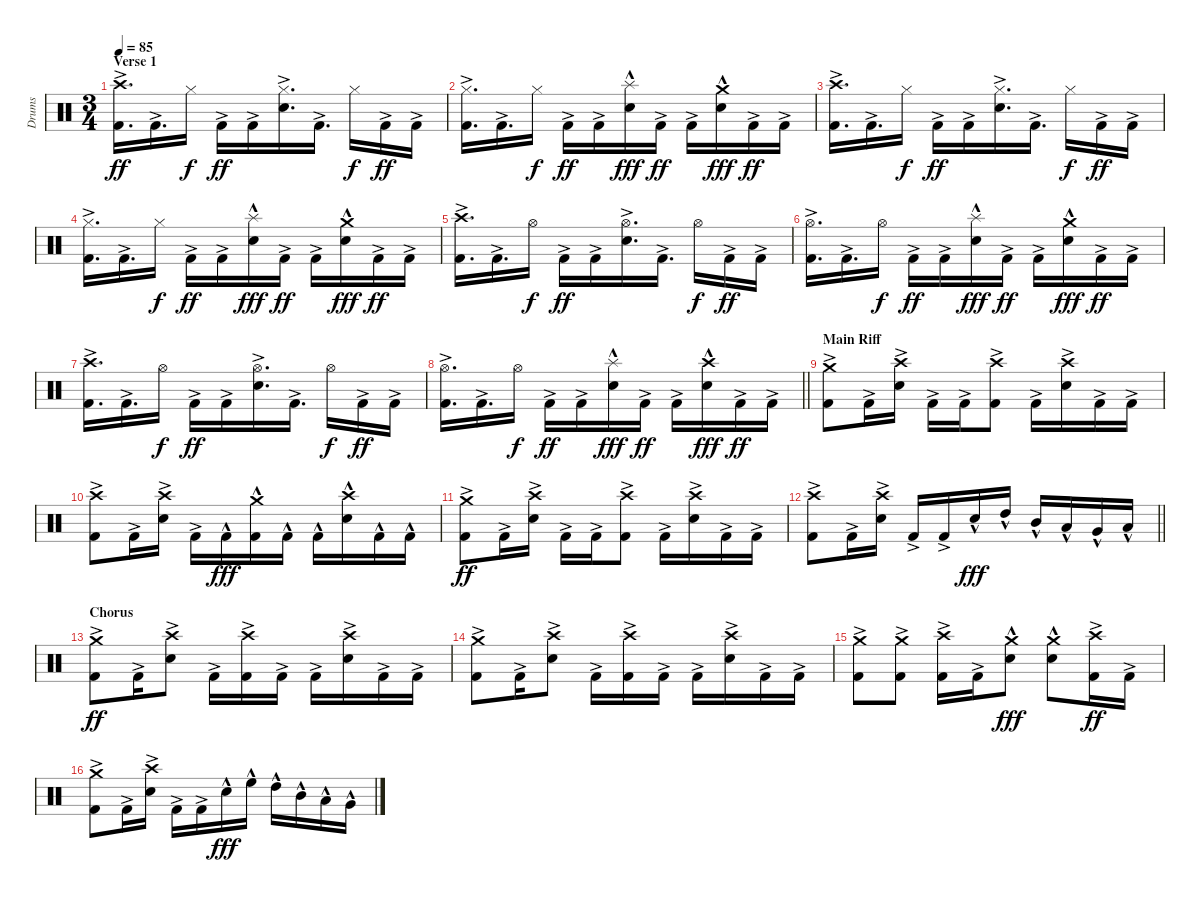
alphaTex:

\track ("Drums" "Drums") {instrument percussion}
\staff {score}
\articulation defaults
\ts (3 4)
\section ("" "Verse 1")
\tempo 85
\clef neutral
\ks c
("Crash high (hit)" "Kick (hit) 2"{ac}).16{d dy ff} "Kick (hit) 2"{ac}.16{d} "Hi-Hat (closed)".16{dy f} "Kick (hit) 2"{ac}.16{dy ff} "Kick (hit) 2"{ac}.16 ("Hi-Hat (closed)" "Electric Snare (hit)"{ac}).16{d} "Kick (hit) 2"{ac}.16{d} "Hi-Hat (closed)".16{dy f} "Kick (hit) 2"{ac}.16{dy ff} "Kick (hit) 2"{ac}.16 |
("Hi-Hat (closed)" "Kick (hit) 2"{ac}).16{d} "Kick (hit) 2"{ac}.16{d} "Hi-Hat (closed)".16{dy f} "Kick (hit) 2"{ac}.16{dy ff} "Kick (hit) 2"{ac}.16 ("Splash (hit)" "Electric Snare (hit)"{hac}).16{dy fff} "Kick (hit) 2"{ac}.16{dy ff} "Kick (hit) 2"{ac}.16 ("Crash medium (hit)" "Electric Snare (hit)"{hac}).16{dy fff} "Kick (hit) 2"{ac}.16{dy ff} "Kick (hit) 2"{ac}.16 |
("Crash high (hit)" "Kick (hit) 2"{ac}).16{d} "Kick (hit) 2"{ac}.16{d} "Hi-Hat (closed)".16{dy f} "Kick (hit) 2"{ac}.16{dy ff} "Kick (hit) 2"{ac}.16 ("Hi-Hat (closed)" "Electric Snare (hit)"{ac}).16{d} "Kick (hit) 2"{ac}.16{d} "Hi-Hat (closed)".16{dy f} "Kick (hit) 2"{ac}.16{dy ff} "Kick (hit) 2"{ac}.16 |
("Hi-Hat (closed)" "Kick (hit) 2"{ac}).16{d} "Kick (hit) 2"{ac}.16{d} "Hi-Hat (closed)".16{dy f} "Kick (hit) 2"{ac}.16{dy ff} "Kick (hit) 2"{ac}.16 ("Splash (hit)" "Electric Snare (hit)"{hac}).16{dy fff} "Kick (hit) 2"{ac}.16{dy ff} "Kick (hit) 2"{ac}.16 ("Crash medium (hit)" "Electric Snare (hit)"{hac}).16{dy fff} "Kick (hit) 2"{ac}.16{dy ff} "Kick (hit) 2"{ac}.16 |
("Crash high (hit)" "Kick (hit) 2"{ac}).16{d} "Kick (hit) 2"{ac}.16{d} "Hi-Hat (open)".16{dy f} "Kick (hit) 2"{ac}.16{dy ff} "Kick (hit) 2"{ac}.16 ("Hi-Hat (open)" "Electric Snare (hit)"{ac}).16{d} "Kick (hit) 2"{ac}.16{d} "Hi-Hat (open)".16{dy f} "Kick (hit) 2"{ac}.16{dy ff} "Kick (hit) 2"{ac}.16 |
("Hi-Hat (open)" "Kick (hit) 2"{ac}).16{d} "Kick (hit) 2"{ac}.16{d} "Hi-Hat (open)".16{dy f} "Kick (hit) 2"{ac}.16{dy ff} "Kick (hit) 2"{ac}.16 ("Splash (hit)" "Electric Snare (hit)"{hac}).16{dy fff} "Kick (hit) 2"{ac}.16{dy ff} "Kick (hit) 2"{ac}.16 ("Crash medium (hit)" "Electric Snare (hit)"{hac}).16{dy fff} "Kick (hit) 2"{ac}.16{dy ff} "Kick (hit) 2"{ac}.16 |
("Crash high (hit)" "Kick (hit) 2"{ac}).16{d} "Kick (hit) 2"{ac}.16{d} "Hi-Hat (open)".16{dy f} "Kick (hit) 2"{ac}.16{dy ff} "Kick (hit) 2"{ac}.16 ("Hi-Hat (open)" "Electric Snare (hit)"{ac}).16{d} "Kick (hit) 2"{ac}.16{d} "Hi-Hat (open)".16{dy f} "Kick (hit) 2"{ac}.16{dy ff} "Kick (hit) 2"{ac}.16 |
\barLineRight lightlight
("Hi-Hat (open)" "Kick (hit) 2"{ac}).16{d} "Kick (hit) 2"{ac}.16{d} "Hi-Hat (open)".16{dy f} "Kick (hit) 2"{ac}.16{dy ff} "Kick (hit) 2"{ac}.16 ("Splash (hit)" "Electric Snare (hit)"{hac}).16{dy fff} "Kick (hit) 2"{ac}.16{dy ff} "Kick (hit) 2"{ac}.16 ("Crash high (hit)" "Electric Snare (hit)"{hac}).16{dy fff} "Kick (hit) 2"{ac}.16{dy ff} "Kick (hit) 2"{ac}.16 |
\section ("" "Main Riff")
("Crash medium (hit)" "Kick (hit) 2"{ac}).8 "Kick (hit) 2"{ac}.16 ("Crash high (hit)" "Electric Snare (hit)"{ac}).16 "Kick (hit) 2"{ac}.16 "Kick (hit) 2"{ac}.16 ("Crash high (hit)" "Kick (hit) 2"{ac}).8 "Kick (hit) 2"{ac}.16 ("Crash high (hit)" "Electric Snare (hit)"{ac}).16 "Kick (hit) 2"{ac}.16 "Kick (hit) 2"{ac}.16 |
("Crash high (hit)" "Kick (hit) 2"{ac}).8 "Kick (hit) 2"{ac}.16 ("Crash high (hit)" "Electric Snare (hit)"{ac}).16 "Kick (hit) 2"{ac}.16 "Kick (hit) 2"{hac}.16{dy fff} ("Crash medium (hit)" "Kick (hit) 2"{hac}).16 "Kick (hit) 2"{hac}.16 "Kick (hit) 2"{hac}.16 ("Crash high (hit)" "Electric Snare (hit)"{hac}).16 "Kick (hit) 2"{hac}.16 "Kick (hit) 2"{hac}.16 |
("Crash medium (hit)" "Kick (hit) 2"{ac}).8{dy ff} "Kick (hit) 2"{ac}.16 ("Crash high (hit)" "Electric Snare (hit)"{ac}).16 "Kick (hit) 2"{ac}.16 "Kick (hit) 2"{ac}.16 ("Crash high (hit)" "Kick (hit) 2"{ac}).8 "Kick (hit) 2"{ac}.16 ("Crash high (hit)" "Electric Snare (hit)"{ac}).16 "Kick (hit) 2"{ac}.16 "Kick (hit) 2"{ac}.16 |
\barLineRight lightlight
("Crash high (hit)" "Kick (hit) 2"{ac}).8 "Kick (hit) 2"{ac}.16 ("Crash high (hit)" "Electric Snare (hit)"{ac}).16 "Kick (hit) 2"{ac}.16 "Kick (hit) 2"{ac}.16 "Electric Snare (hit)"{hac}.16{dy fff} "High Tom (hit)"{hac}.16 "Mid Tom (hit)"{hac}.16 "Low Tom (hit)"{hac}.16 "Very Low Tom (hit)"{hac}.16 "Low Floor Tom (hit)"{hac}.16 |
\section ("" "Chorus")
("Crash medium (hit)" "Kick (hit) 2"{ac}).8{dy ff} "Kick (hit) 2"{ac}.16 ("Crash high (hit)" "Electric Snare (hit)"{ac}).8 "Kick (hit) 2"{ac}.16 ("Crash high (hit)" "Kick (hit) 2"{ac}).16 "Kick (hit) 2"{ac}.16 "Kick (hit) 2"{ac}.16 ("Crash high (hit)" "Electric Snare (hit)"{ac}).16 "Kick (hit) 2"{ac}.16 "Kick (hit) 2"{ac}.16 |
("Crash medium (hit)" "Kick (hit) 2"{ac}).8 "Kick (hit) 2"{ac}.16 ("Crash high (hit)" "Electric Snare (hit)"{ac}).8 "Kick (hit) 2"{ac}.16 ("Crash high (hit)" "Kick (hit) 2"{ac}).16 "Kick (hit) 2"{ac}.16 "Kick (hit) 2"{ac}.16 ("Crash high (hit)" "Electric Snare (hit)"{ac}).16 "Kick (hit) 2"{ac}.16 "Kick (hit) 2"{ac}.16 |
("Crash medium (hit)" "Kick (hit) 2"{ac}).8 ("Crash medium (hit)" "Kick (hit) 2"{ac}).8 ("Crash high (hit)" "Kick (hit) 2"{ac}).16 "Kick (hit) 2"{ac}.16 ("Crash medium (hit)" "Electric Snare (hit)"{hac}).8{dy fff} ("Crash medium (hit)" "Electric Snare (hit)"{hac}).8 ("Crash high (hit)" "Kick (hit) 2"{ac}).16{dy ff} "Kick (hit) 2"{ac}.16 |
("Crash medium (hit)" "Kick (hit) 2"{ac}).8 "Kick (hit) 2"{ac}.16 ("Crash high (hit)" "Electric Snare (hit)"{ac}).16 "Kick (hit) 2"{ac}.16 "Kick (hit) 2"{ac}.16 "Electric Snare (hit)"{hac}.16{dy fff} "High Floor Tom (hit)"{hac}.16 "High Tom (hit)"{hac}.16 "Mid Tom (hit)"{hac}.16 "Low Tom (hit)"{hac}.16 "Very Low Tom (hit)"{hac}.16
